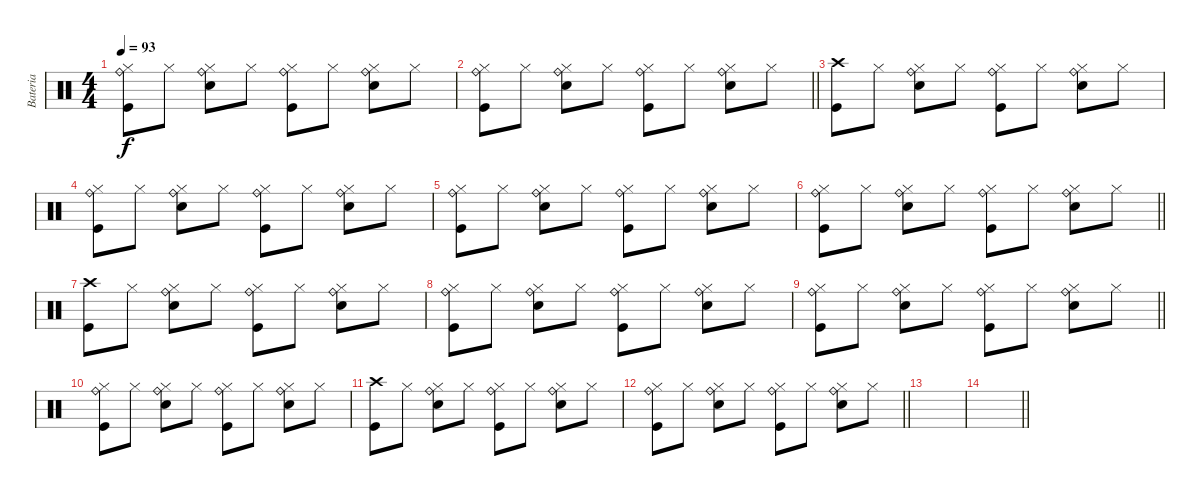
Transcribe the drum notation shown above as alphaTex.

\track ("Bateria" "Bateria") {instrument percussion}
\staff {score}
\articulation defaults
\ts (4 4)
\tempo 93
\clef neutral
\ks c
("Hi-Hat (closed)" "Kick (hit)" "Ride (bell)").8{dy f} "Hi-Hat (closed)".8 ("Hi-Hat (closed)" "Snare (hit) 2" "Ride (bell)").8 "Hi-Hat (closed)".8 ("Kick (hit)" "Hi-Hat (closed)" "Ride (bell)").8 "Hi-Hat (closed)".8 ("Hi-Hat (closed)" "Snare (hit) 2" "Ride (bell)").8 "Hi-Hat (closed)".8 |
\barLineRight lightlight
("Hi-Hat (closed)" "Kick (hit)" "Ride (bell)").8 "Hi-Hat (closed)".8 ("Hi-Hat (closed)" "Snare (hit) 2" "Ride (bell)").8 "Hi-Hat (closed)".8 ("Kick (hit)" "Hi-Hat (closed)" "Ride (bell)").8 "Hi-Hat (closed)".8 ("Hi-Hat (closed)" "Snare (hit) 2" "Ride (bell)").8 "Hi-Hat (closed)".8 |
("Crash high (hit)" "Kick (hit)").8 "Hi-Hat (closed)".8 ("Hi-Hat (closed)" "Snare (hit) 2" "Ride (bell)").8 "Hi-Hat (closed)".8 ("Kick (hit)" "Hi-Hat (closed)" "Ride (bell)").8 "Hi-Hat (closed)".8 ("Hi-Hat (closed)" "Snare (hit) 2" "Ride (bell)").8 "Hi-Hat (closed)".8 |
("Hi-Hat (closed)" "Kick (hit)" "Ride (bell)").8 "Hi-Hat (closed)".8 ("Hi-Hat (closed)" "Snare (hit) 2" "Ride (bell)").8 "Hi-Hat (closed)".8 ("Kick (hit)" "Hi-Hat (closed)" "Ride (bell)").8 "Hi-Hat (closed)".8 ("Hi-Hat (closed)" "Snare (hit) 2" "Ride (bell)").8 "Hi-Hat (closed)".8 |
("Hi-Hat (closed)" "Kick (hit)" "Ride (bell)").8 "Hi-Hat (closed)".8 ("Hi-Hat (closed)" "Snare (hit) 2" "Ride (bell)").8 "Hi-Hat (closed)".8 ("Kick (hit)" "Hi-Hat (closed)" "Ride (bell)").8 "Hi-Hat (closed)".8 ("Hi-Hat (closed)" "Snare (hit) 2" "Ride (bell)").8 "Hi-Hat (closed)".8 |
\barLineRight lightlight
("Hi-Hat (closed)" "Kick (hit)" "Ride (bell)").8 "Hi-Hat (closed)".8 ("Hi-Hat (closed)" "Snare (hit) 2" "Ride (bell)").8 "Hi-Hat (closed)".8 ("Kick (hit)" "Hi-Hat (closed)" "Ride (bell)").8 "Hi-Hat (closed)".8 ("Hi-Hat (closed)" "Snare (hit) 2" "Ride (bell)").8 "Hi-Hat (closed)".8 |
("Crash high (hit)" "Kick (hit)").8 "Hi-Hat (closed)".8 ("Hi-Hat (closed)" "Snare (hit) 2" "Ride (bell)").8 "Hi-Hat (closed)".8 ("Kick (hit)" "Hi-Hat (closed)" "Ride (bell)").8 "Hi-Hat (closed)".8 ("Hi-Hat (closed)" "Snare (hit) 2" "Ride (bell)").8 "Hi-Hat (closed)".8 |
("Hi-Hat (closed)" "Kick (hit)" "Ride (bell)").8 "Hi-Hat (closed)".8 ("Hi-Hat (closed)" "Snare (hit) 2" "Ride (bell)").8 "Hi-Hat (closed)".8 ("Kick (hit)" "Hi-Hat (closed)" "Ride (bell)").8 "Hi-Hat (closed)".8 ("Hi-Hat (closed)" "Snare (hit) 2" "Ride (bell)").8 "Hi-Hat (closed)".8 |
\barLineRight lightlight
("Hi-Hat (closed)" "Kick (hit)" "Ride (bell)").8 "Hi-Hat (closed)".8 ("Hi-Hat (closed)" "Snare (hit) 2" "Ride (bell)").8 "Hi-Hat (closed)".8 ("Kick (hit)" "Hi-Hat (closed)" "Ride (bell)").8 "Hi-Hat (closed)".8 ("Hi-Hat (closed)" "Snare (hit) 2" "Ride (bell)").8 "Hi-Hat (closed)".8 |
("Hi-Hat (closed)" "Kick (hit)" "Ride (bell)").8 "Hi-Hat (closed)".8 ("Hi-Hat (closed)" "Snare (hit) 2" "Ride (bell)").8 "Hi-Hat (closed)".8 ("Kick (hit)" "Hi-Hat (closed)" "Ride (bell)").8 "Hi-Hat (closed)".8 ("Hi-Hat (closed)" "Snare (hit) 2" "Ride (bell)").8 "Hi-Hat (closed)".8 |
("Crash high (hit)" "Kick (hit)").8 "Hi-Hat (closed)".8 ("Hi-Hat (closed)" "Snare (hit) 2" "Ride (bell)").8 "Hi-Hat (closed)".8 ("Kick (hit)" "Hi-Hat (closed)" "Ride (bell)").8 "Hi-Hat (closed)".8 ("Hi-Hat (closed)" "Snare (hit) 2" "Ride (bell)").8 "Hi-Hat (closed)".8 |
\barLineRight lightlight
("Hi-Hat (closed)" "Kick (hit)" "Ride (bell)").8 "Hi-Hat (closed)".8 ("Hi-Hat (closed)" "Snare (hit) 2" "Ride (bell)").8 "Hi-Hat (closed)".8 ("Kick (hit)" "Hi-Hat (closed)" "Ride (bell)").8 "Hi-Hat (closed)".8 ("Hi-Hat (closed)" "Snare (hit) 2" "Ride (bell)").8 "Hi-Hat (closed)".8 |
|
\barLineRight lightlight
